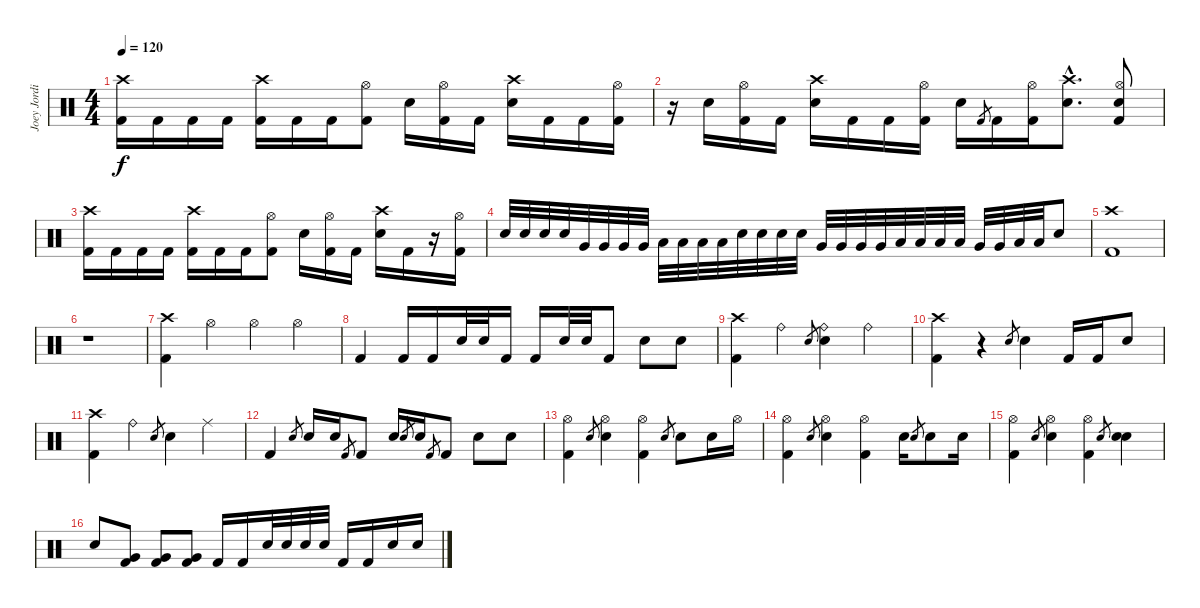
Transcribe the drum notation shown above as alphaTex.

\track ("Joey Jordison   #1" "Joey Jordi") {instrument percussion}
\staff {score}
\articulation defaults
\ts (4 4)
\tempo 120
\clef neutral
\ks c
("Crash high (hit)" "Kick (hit) 2").16{dy f} "Kick (hit) 2".16 "Kick (hit) 2".16 "Kick (hit) 2".16 ("Crash high (hit)" "Kick (hit) 2").16 "Kick (hit) 2".16 "Kick (hit) 2".16 ("Hi-Hat (open)" "Kick (hit) 2").8 "Electric Snare (hit)".16 ("Hi-Hat (open)" "Kick (hit) 2").16 "Kick (hit) 2".16 ("Crash high (hit)" "Electric Snare (hit)").16 "Kick (hit) 2".16 "Kick (hit) 2".16 ("Hi-Hat (open)" "Kick (hit) 2").16 |
r.16 "Electric Snare (hit)".16 ("Hi-Hat (open)" "Kick (hit) 2").16 "Kick (hit) 2".16 ("Crash high (hit)" "Electric Snare (hit)").16 "Kick (hit) 2".16 "Kick (hit) 2".16 ("Hi-Hat (open)" "Kick (hit) 2").16 "Electric Snare (hit)".16 "Kick (hit) 2".8{gr} "Kick (hit) 2".16 ("Hi-Hat (open)" "Kick (hit) 2").16 ("Crash high (hit)"{hac} "Electric Snare (hit)"{hac}).8{d} ("Hi-Hat (open)" "Electric Snare (hit)" "Kick (hit) 2").8 |
("Crash high (hit)" "Kick (hit) 2").16 "Kick (hit) 2".16 "Kick (hit) 2".16 "Kick (hit) 2".16 ("Crash high (hit)" "Kick (hit) 2").16 "Kick (hit) 2".16 "Kick (hit) 2".16 ("Hi-Hat (open)" "Kick (hit) 2").8 "Electric Snare (hit)".16 ("Hi-Hat (open)" "Kick (hit) 2").16 "Kick (hit) 2".16 ("Crash high (hit)" "Electric Snare (hit)").16 "Kick (hit) 2".16 r.16 ("Hi-Hat (open)" "Kick (hit) 2").16 |
"Electric Snare (hit)".32 "Electric Snare (hit)".32 "Electric Snare (hit)".32 "Electric Snare (hit)".32 "Very Low Tom (hit)".32 "Very Low Tom (hit)".32 "Very Low Tom (hit)".32 "Very Low Tom (hit)".32 "Low Floor Tom (hit)".32 "Low Floor Tom (hit)".32 "Low Floor Tom (hit)".32 "Low Floor Tom (hit)".32 "Electric Snare (hit)".32 "Electric Snare (hit)".32 "Electric Snare (hit)".32 "Electric Snare (hit)".32 "Very Low Tom (hit)".32 "Very Low Tom (hit)".32 "Very Low Tom (hit)".32 "Very Low Tom (hit)".32 "Low Floor Tom (hit)".32 "Low Floor Tom (hit)".32 "Low Floor Tom (hit)".32 "Low Floor Tom (hit)".32 "Very Low Tom (hit)".32 "Very Low Tom (hit)".32 "Low Floor Tom (hit)".32 "Low Floor Tom (hit)".32 "Electric Snare (hit)".8 |
("Crash high (hit)" "Kick (hit) 2").1 |
r.1 |
("Crash high (hit)" "Kick (hit) 2").4 "Hi-Hat (open)".4 "Hi-Hat (open)".4 "Hi-Hat (open)".4 |
"Kick (hit) 2".4 "Kick (hit) 2".16 "Kick (hit) 2".16 "Electric Snare (hit)".32 "Electric Snare (hit)".32 "Kick (hit) 2".16 "Kick (hit) 2".16 "Electric Snare (hit)".32 "Electric Snare (hit)".32 "Kick (hit) 2".8 "Electric Snare (hit)".8 "Electric Snare (hit)".8 |
("Crash high (hit)" "Kick (hit) 2").4 "Ride (bell)".4 "Electric Snare (hit)".8{gr} ("Ride (bell)" "Electric Snare (hit)").4 "Ride (bell)".4 |
("Crash high (hit)" "Kick (hit) 2").4 r.4 "Electric Snare (hit)".8{gr} "Electric Snare (hit)".4 "Kick (hit) 2".16 "Kick (hit) 2".16 "Electric Snare (hit)".8 |
("Crash high (hit)" "Kick (hit) 2").4 "Ride (bell)".4 "Electric Snare (hit)".8{gr} "Electric Snare (hit)".4 "Ride (middle)".4 |
"Kick (hit) 2".4 "Electric Snare (hit)".8{gr} "Electric Snare (hit)".16 "Electric Snare (hit)".16 "Kick (hit) 2".8{gr} "Kick (hit) 2".8 "Electric Snare (hit)".16 "Electric Snare (hit)".8{gr} "Electric Snare (hit)".16 "Kick (hit) 2".8{gr} "Kick (hit) 2".8 "Electric Snare (hit)".8 "Electric Snare (hit)".8 |
("Hi-Hat (open)" "Kick (hit) 2").4 "Electric Snare (hit)".8{gr} ("Hi-Hat (open)" "Electric Snare (hit)").4 ("Hi-Hat (open)" "Kick (hit) 2").4 "Electric Snare (hit)".8{gr} "Electric Snare (hit)".8 "Electric Snare (hit)".16 "Hi-Hat (open)".16 |
("Hi-Hat (open)" "Kick (hit) 2").4 "Electric Snare (hit)".8{gr} ("Hi-Hat (open)" "Electric Snare (hit)").4 ("Hi-Hat (open)" "Kick (hit) 2").4 "Electric Snare (hit)".16 "Electric Snare (hit)".8{gr} "Electric Snare (hit)".8 "Electric Snare (hit)".16 |
("Hi-Hat (open)" "Kick (hit) 2").4 "Electric Snare (hit)".8{gr} ("Hi-Hat (open)" "Electric Snare (hit)").4 ("Hi-Hat (open)" "Kick (hit) 2").4 "Electric Snare (hit)".8{gr} ("Electric Snare (hit)" "Electric Snare (hit)").4 |
"Electric Snare (hit)".8 ("Very Low Tom (hit)" "Kick (hit) 2").8 ("Very Low Tom (hit)" "Kick (hit) 2").8 ("Very Low Tom (hit)" "Kick (hit) 2").8 "Kick (hit) 2".16 "Kick (hit) 2".16 "Electric Snare (hit)".32 "Electric Snare (hit)".32 "Electric Snare (hit)".32 "Electric Snare (hit)".32 "Kick (hit) 2".16 "Kick (hit) 2".16 "Electric Snare (hit)".16 "Electric Snare (hit)".16
